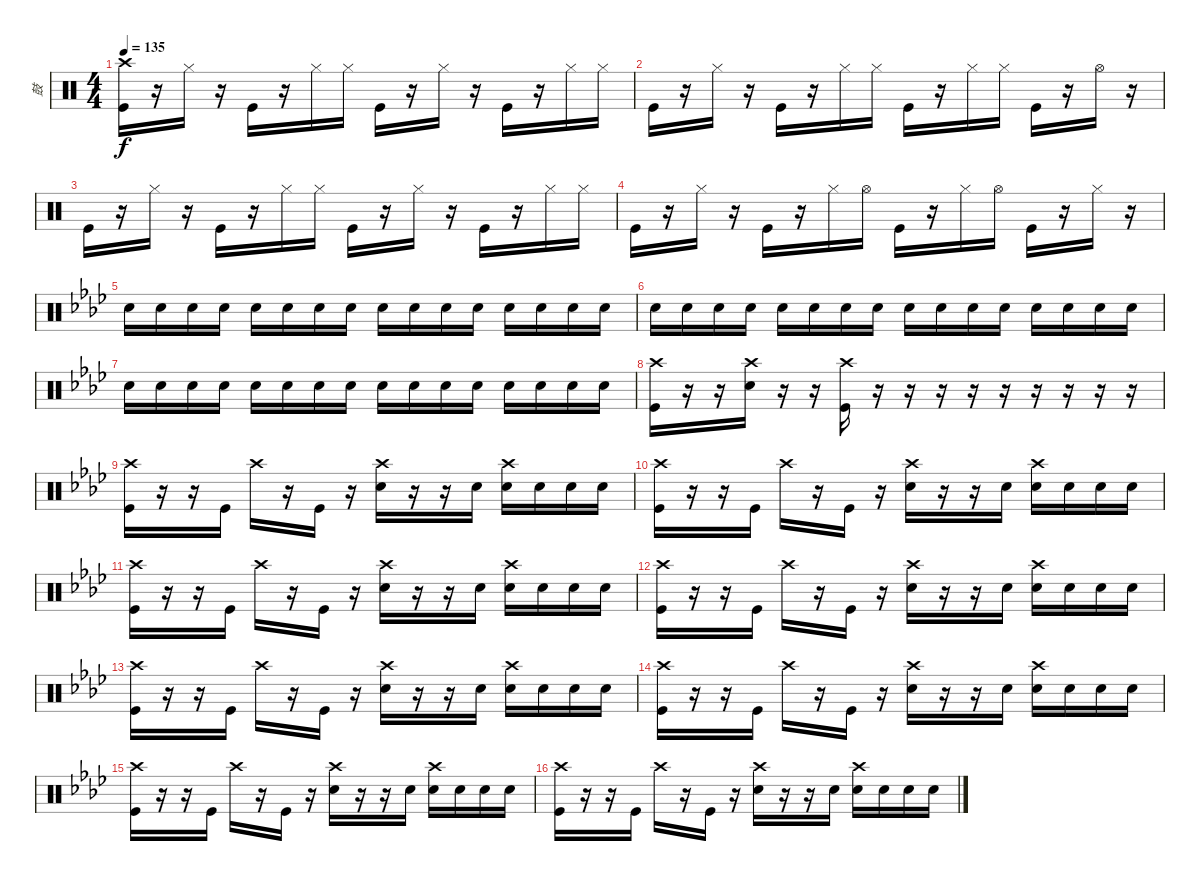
\track ("鼓" "鼓") {instrument percussion}
\staff {score}
\articulation defaults
\ts (4 4)
\tempo 135
\clef neutral
\ks c
("Crash high (hit)" "Kick (hit)").16{dy f} r.16 "Hi-Hat (closed)".16 r.16 "Kick (hit)".16 r.16 "Hi-Hat (closed)".16 "Hi-Hat (closed)".16 "Kick (hit)".16 r.16 "Hi-Hat (closed)".16 r.16 "Kick (hit)".16 r.16 "Hi-Hat (closed)".16 "Hi-Hat (closed)".16 |
"Kick (hit)".16 r.16 "Hi-Hat (closed)".16 r.16 "Kick (hit)".16 r.16 "Hi-Hat (closed)".16 "Hi-Hat (closed)".16 "Kick (hit)".16 r.16 "Hi-Hat (closed)".16 "Hi-Hat (closed)".16 "Kick (hit)".16 r.16 "Hi-Hat (open)".16 r.16 |
"Kick (hit)".16 r.16 "Hi-Hat (closed)".16 r.16 "Kick (hit)".16 r.16 "Hi-Hat (closed)".16 "Hi-Hat (closed)".16 "Kick (hit)".16 r.16 "Hi-Hat (closed)".16 r.16 "Kick (hit)".16 r.16 "Hi-Hat (closed)".16 "Hi-Hat (closed)".16 |
"Kick (hit)".16 r.16 "Hi-Hat (closed)".16 r.16 "Kick (hit)".16 r.16 "Hi-Hat (closed)".16 "Hi-Hat (open)".16 "Kick (hit)".16 r.16 "Hi-Hat (closed)".16 "Hi-Hat (open)".16 "Kick (hit)".16 r.16 "Hi-Hat (closed)".16 r.16 |
\ks ab "Snare (hit) 2".16 "Snare (hit) 2".16 "Snare (hit) 2".16 "Snare (hit) 2".16 "Snare (hit) 2".16 "Snare (hit) 2".16 "Snare (hit) 2".16 "Snare (hit) 2".16 "Snare (hit) 2".16 "Snare (hit) 2".16 "Snare (hit) 2".16 "Snare (hit) 2".16 "Snare (hit) 2".16 "Snare (hit) 2".16 "Snare (hit) 2".16 "Snare (hit) 2".16
|
"Snare (hit) 2".16 "Snare (hit) 2".16 "Snare (hit) 2".16 "Snare (hit) 2".16 "Snare (hit) 2".16 "Snare (hit) 2".16 "Snare (hit) 2".16 "Snare (hit) 2".16 "Snare (hit) 2".16 "Snare (hit) 2".16 "Snare (hit) 2".16 "Snare (hit) 2".16 "Snare (hit) 2".16 "Snare (hit) 2".16 "Snare (hit) 2".16 "Snare (hit) 2".16 |
"Snare (hit) 2".16 "Snare (hit) 2".16 "Snare (hit) 2".16 "Snare (hit) 2".16 "Snare (hit) 2".16 "Snare (hit) 2".16 "Snare (hit) 2".16 "Snare (hit) 2".16 "Snare (hit) 2".16 "Snare (hit) 2".16 "Snare (hit) 2".16 "Snare (hit) 2".16 "Snare (hit) 2".16 "Snare (hit) 2".16 "Snare (hit) 2".16 "Snare (hit) 2".16 |
("Crash high (hit)" "Kick (hit)").16 r.16 r.16 ("Crash high (hit)" "Snare (hit) 2").16 r.16 r.16 ("Crash high (hit)" "Kick (hit)").16 r.16 r.16 r.16 r.16 r.16 r.16 r.16 r.16 r.16 |
("Crash high (hit)" "Kick (hit)").16 r.16 r.16 "Kick (hit)".16 "Crash high (hit)".16 r.16 "Kick (hit)".16 r.16 ("Crash high (hit)" "Snare (hit) 2").16 r.16 r.16 "Snare (hit) 2".16 ("Crash high (hit)" "Snare (hit) 2").16 "Snare (hit) 2".16 "Snare (hit) 2".16 "Snare (hit) 2".16 |
("Crash high (hit)" "Kick (hit)").16 r.16 r.16 "Kick (hit)".16 "Crash high (hit)".16 r.16 "Kick (hit)".16 r.16 ("Crash high (hit)" "Snare (hit) 2").16 r.16 r.16 "Snare (hit) 2".16 ("Crash high (hit)" "Snare (hit) 2").16 "Snare (hit) 2".16 "Snare (hit) 2".16 "Snare (hit) 2".16 |
("Crash high (hit)" "Kick (hit)").16 r.16 r.16 "Kick (hit)".16 "Crash high (hit)".16 r.16 "Kick (hit)".16 r.16 ("Crash high (hit)" "Snare (hit) 2").16 r.16 r.16 "Snare (hit) 2".16 ("Crash high (hit)" "Snare (hit) 2").16 "Snare (hit) 2".16 "Snare (hit) 2".16 "Snare (hit) 2".16 |
("Crash high (hit)" "Kick (hit)").16 r.16 r.16 "Kick (hit)".16 "Crash high (hit)".16 r.16 "Kick (hit)".16 r.16 ("Crash high (hit)" "Snare (hit) 2").16 r.16 r.16 "Snare (hit) 2".16 ("Crash high (hit)" "Snare (hit) 2").16 "Snare (hit) 2".16 "Snare (hit) 2".16 "Snare (hit) 2".16 |
("Crash high (hit)" "Kick (hit)").16 r.16 r.16 "Kick (hit)".16 "Crash high (hit)".16 r.16 "Kick (hit)".16 r.16 ("Crash high (hit)" "Snare (hit) 2").16 r.16 r.16 "Snare (hit) 2".16 ("Crash high (hit)" "Snare (hit) 2").16 "Snare (hit) 2".16 "Snare (hit) 2".16 "Snare (hit) 2".16 |
("Crash high (hit)" "Kick (hit)").16 r.16 r.16 "Kick (hit)".16 "Crash high (hit)".16 r.16 "Kick (hit)".16 r.16 ("Crash high (hit)" "Snare (hit) 2").16 r.16 r.16 "Snare (hit) 2".16 ("Crash high (hit)" "Snare (hit) 2").16 "Snare (hit) 2".16 "Snare (hit) 2".16 "Snare (hit) 2".16 |
("Crash high (hit)" "Kick (hit)").16 r.16 r.16 "Kick (hit)".16 "Crash high (hit)".16 r.16 "Kick (hit)".16 r.16 ("Crash high (hit)" "Snare (hit) 2").16 r.16 r.16 "Snare (hit) 2".16 ("Crash high (hit)" "Snare (hit) 2").16 "Snare (hit) 2".16 "Snare (hit) 2".16 "Snare (hit) 2".16 |
("Crash high (hit)" "Kick (hit)").16 r.16 r.16 "Kick (hit)".16 "Crash high (hit)".16 r.16 "Kick (hit)".16 r.16 ("Crash high (hit)" "Snare (hit) 2").16 r.16 r.16 "Snare (hit) 2".16 ("Crash high (hit)" "Snare (hit) 2").16 "Snare (hit) 2".16 "Snare (hit) 2".16 "Snare (hit) 2".16
